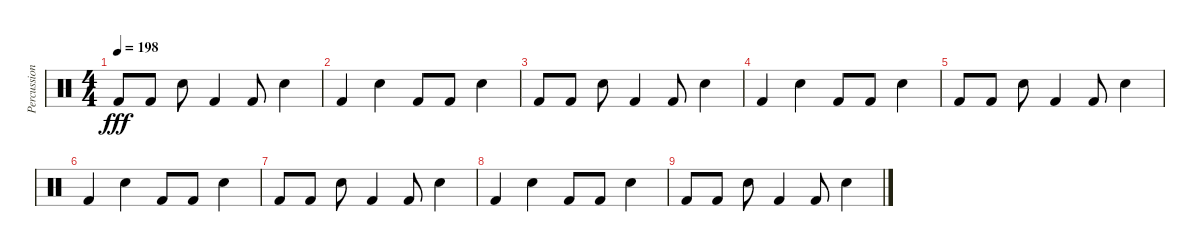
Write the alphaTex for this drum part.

\track ("Percussion" "Percussion") {instrument percussion}
\staff {score}
\articulation defaults
\ts (4 4)
\tempo 198
\clef neutral
\ks c "Kick (hit) 2".8{dy fff} "Kick (hit) 2".8 "Electric Snare (hit)".8 "Kick (hit) 2".4 "Kick (hit) 2".8 "Electric Snare (hit)".4
|
"Kick (hit) 2".4 "Electric Snare (hit)".4 "Kick (hit) 2".8 "Kick (hit) 2".8 "Electric Snare (hit)".4 |
"Kick (hit) 2".8 "Kick (hit) 2".8 "Electric Snare (hit)".8 "Kick (hit) 2".4 "Kick (hit) 2".8 "Electric Snare (hit)".4 |
"Kick (hit) 2".4 "Electric Snare (hit)".4 "Kick (hit) 2".8 "Kick (hit) 2".8 "Electric Snare (hit)".4 |
"Kick (hit) 2".8 "Kick (hit) 2".8 "Electric Snare (hit)".8 "Kick (hit) 2".4 "Kick (hit) 2".8 "Electric Snare (hit)".4 |
"Kick (hit) 2".4 "Electric Snare (hit)".4 "Kick (hit) 2".8 "Kick (hit) 2".8 "Electric Snare (hit)".4 |
"Kick (hit) 2".8 "Kick (hit) 2".8 "Electric Snare (hit)".8 "Kick (hit) 2".4 "Kick (hit) 2".8 "Electric Snare (hit)".4 |
"Kick (hit) 2".4 "Electric Snare (hit)".4 "Kick (hit) 2".8 "Kick (hit) 2".8 "Electric Snare (hit)".4 |
"Kick (hit) 2".8 "Kick (hit) 2".8 "Electric Snare (hit)".8 "Kick (hit) 2".4 "Kick (hit) 2".8 "Electric Snare (hit)".4
